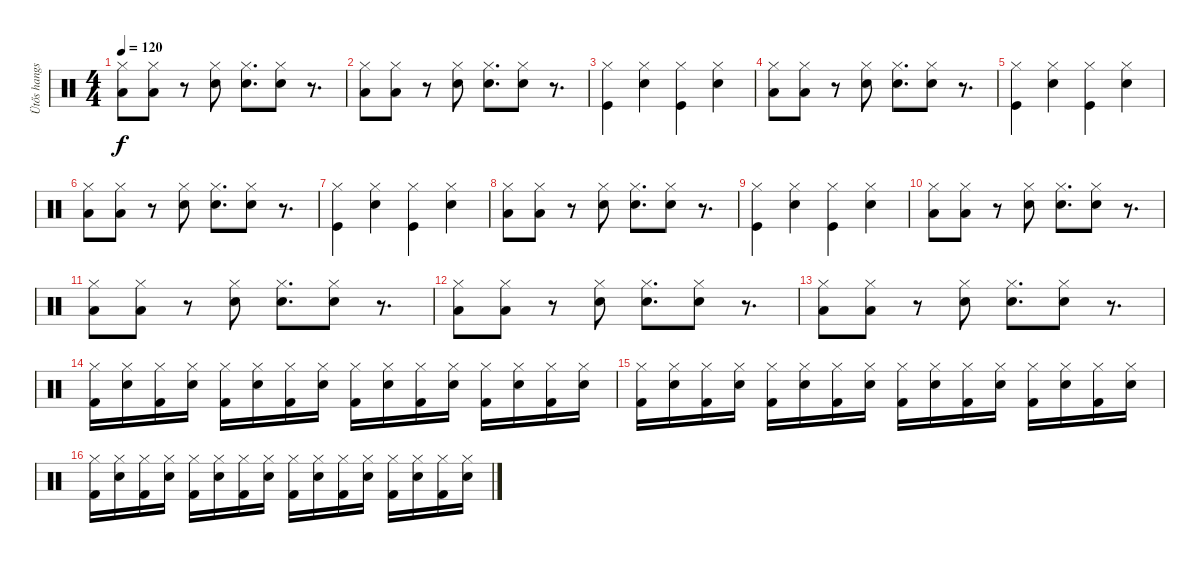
\track ("Ütős hangszer" "Ütős hangs") {instrument percussion}
\staff {score}
\articulation defaults
\ts (4 4)
\tempo 120
\clef neutral
\ks c
("Low Floor Tom (hit)" "Hi-Hat (closed)").8{dy f} ("Hi-Hat (closed)" "Low Floor Tom (hit)").8 r.8 ("Hi-Hat (closed)" "Snare (hit) 2").8 ("Hi-Hat (closed)" "Snare (hit) 2").8{d} ("Hi-Hat (closed)" "Snare (hit) 2").8 r.8{d} |
("Low Floor Tom (hit)" "Hi-Hat (closed)").8 ("Hi-Hat (closed)" "Low Floor Tom (hit)").8 r.8 ("Hi-Hat (closed)" "Snare (hit) 2").8 ("Hi-Hat (closed)" "Snare (hit) 2").8{d} ("Hi-Hat (closed)" "Snare (hit) 2").8 r.8{d} |
("Hi-Hat (closed)" "Kick (hit)").4 ("Hi-Hat (closed)" "Snare (hit) 2").4 ("Hi-Hat (closed)" "Kick (hit)").4 ("Hi-Hat (closed)" "Snare (hit) 2").4 |
("Low Floor Tom (hit)" "Hi-Hat (closed)").8 ("Hi-Hat (closed)" "Low Floor Tom (hit)").8 r.8 ("Hi-Hat (closed)" "Snare (hit) 2").8 ("Hi-Hat (closed)" "Snare (hit) 2").8{d} ("Hi-Hat (closed)" "Snare (hit) 2").8 r.8{d} |
("Hi-Hat (closed)" "Kick (hit)").4 ("Hi-Hat (closed)" "Snare (hit) 2").4 ("Hi-Hat (closed)" "Kick (hit)").4 ("Hi-Hat (closed)" "Snare (hit) 2").4 |
("Low Floor Tom (hit)" "Hi-Hat (closed)").8 ("Hi-Hat (closed)" "Low Floor Tom (hit)").8 r.8 ("Hi-Hat (closed)" "Snare (hit) 2").8 ("Hi-Hat (closed)" "Snare (hit) 2").8{d} ("Hi-Hat (closed)" "Snare (hit) 2").8 r.8{d} |
("Hi-Hat (closed)" "Kick (hit)").4 ("Hi-Hat (closed)" "Snare (hit) 2").4 ("Hi-Hat (closed)" "Kick (hit)").4 ("Hi-Hat (closed)" "Snare (hit) 2").4 |
("Low Floor Tom (hit)" "Hi-Hat (closed)").8 ("Hi-Hat (closed)" "Low Floor Tom (hit)").8 r.8 ("Hi-Hat (closed)" "Snare (hit) 2").8 ("Hi-Hat (closed)" "Snare (hit) 2").8{d} ("Hi-Hat (closed)" "Snare (hit) 2").8 r.8{d} |
("Hi-Hat (closed)" "Kick (hit)").4 ("Hi-Hat (closed)" "Snare (hit) 2").4 ("Hi-Hat (closed)" "Kick (hit)").4 ("Hi-Hat (closed)" "Snare (hit) 2").4 |
("Low Floor Tom (hit)" "Hi-Hat (closed)").8 ("Hi-Hat (closed)" "Low Floor Tom (hit)").8 r.8 ("Hi-Hat (closed)" "Snare (hit) 2").8 ("Hi-Hat (closed)" "Snare (hit) 2").8{d} ("Hi-Hat (closed)" "Snare (hit) 2").8 r.8{d} |
("Low Floor Tom (hit)" "Hi-Hat (closed)").8 ("Hi-Hat (closed)" "Low Floor Tom (hit)").8 r.8 ("Hi-Hat (closed)" "Snare (hit) 2").8 ("Hi-Hat (closed)" "Snare (hit) 2").8{d} ("Hi-Hat (closed)" "Snare (hit) 2").8 r.8{d} |
("Low Floor Tom (hit)" "Hi-Hat (closed)").8 ("Hi-Hat (closed)" "Low Floor Tom (hit)").8 r.8 ("Hi-Hat (closed)" "Snare (hit) 2").8 ("Hi-Hat (closed)" "Snare (hit) 2").8{d} ("Hi-Hat (closed)" "Snare (hit) 2").8 r.8{d} |
("Low Floor Tom (hit)" "Hi-Hat (closed)").8 ("Hi-Hat (closed)" "Low Floor Tom (hit)").8 r.8 ("Hi-Hat (closed)" "Snare (hit) 2").8 ("Hi-Hat (closed)" "Snare (hit) 2").8{d} ("Hi-Hat (closed)" "Snare (hit) 2").8 r.8{d} |
("Hi-Hat (closed)" "Kick (hit) 2").16 ("Hi-Hat (closed)" "Snare (hit) 2").16 ("Hi-Hat (closed)" "Kick (hit) 2").16 ("Hi-Hat (closed)" "Snare (hit) 2").16 ("Hi-Hat (closed)" "Kick (hit) 2").16 ("Hi-Hat (closed)" "Snare (hit) 2").16 ("Hi-Hat (closed)" "Kick (hit) 2").16 ("Hi-Hat (closed)" "Snare (hit) 2").16 ("Hi-Hat (closed)" "Kick (hit) 2").16 ("Hi-Hat (closed)" "Snare (hit) 2").16 ("Hi-Hat (closed)" "Kick (hit) 2").16 ("Hi-Hat (closed)" "Snare (hit) 2").16 ("Hi-Hat (closed)" "Kick (hit) 2").16 ("Hi-Hat (closed)" "Snare (hit) 2").16 ("Hi-Hat (closed)" "Kick (hit) 2").16 ("Hi-Hat (closed)" "Snare (hit) 2").16 |
("Hi-Hat (closed)" "Kick (hit) 2").16 ("Hi-Hat (closed)" "Snare (hit) 2").16 ("Hi-Hat (closed)" "Kick (hit) 2").16 ("Hi-Hat (closed)" "Snare (hit) 2").16 ("Hi-Hat (closed)" "Kick (hit) 2").16 ("Hi-Hat (closed)" "Snare (hit) 2").16 ("Hi-Hat (closed)" "Kick (hit) 2").16 ("Hi-Hat (closed)" "Snare (hit) 2").16 ("Hi-Hat (closed)" "Kick (hit) 2").16 ("Hi-Hat (closed)" "Snare (hit) 2").16 ("Hi-Hat (closed)" "Kick (hit) 2").16 ("Hi-Hat (closed)" "Snare (hit) 2").16 ("Hi-Hat (closed)" "Kick (hit) 2").16 ("Hi-Hat (closed)" "Snare (hit) 2").16 ("Hi-Hat (closed)" "Kick (hit) 2").16 ("Hi-Hat (closed)" "Snare (hit) 2").16 |
("Hi-Hat (closed)" "Kick (hit) 2").16 ("Hi-Hat (closed)" "Snare (hit) 2").16 ("Hi-Hat (closed)" "Kick (hit) 2").16 ("Hi-Hat (closed)" "Snare (hit) 2").16 ("Hi-Hat (closed)" "Kick (hit) 2").16 ("Hi-Hat (closed)" "Snare (hit) 2").16 ("Hi-Hat (closed)" "Kick (hit) 2").16 ("Hi-Hat (closed)" "Snare (hit) 2").16 ("Hi-Hat (closed)" "Kick (hit) 2").16 ("Hi-Hat (closed)" "Snare (hit) 2").16 ("Hi-Hat (closed)" "Kick (hit) 2").16 ("Hi-Hat (closed)" "Snare (hit) 2").16 ("Hi-Hat (closed)" "Kick (hit) 2").16 ("Hi-Hat (closed)" "Snare (hit) 2").16 ("Hi-Hat (closed)" "Kick (hit) 2").16 ("Hi-Hat (closed)" "Snare (hit) 2").16
